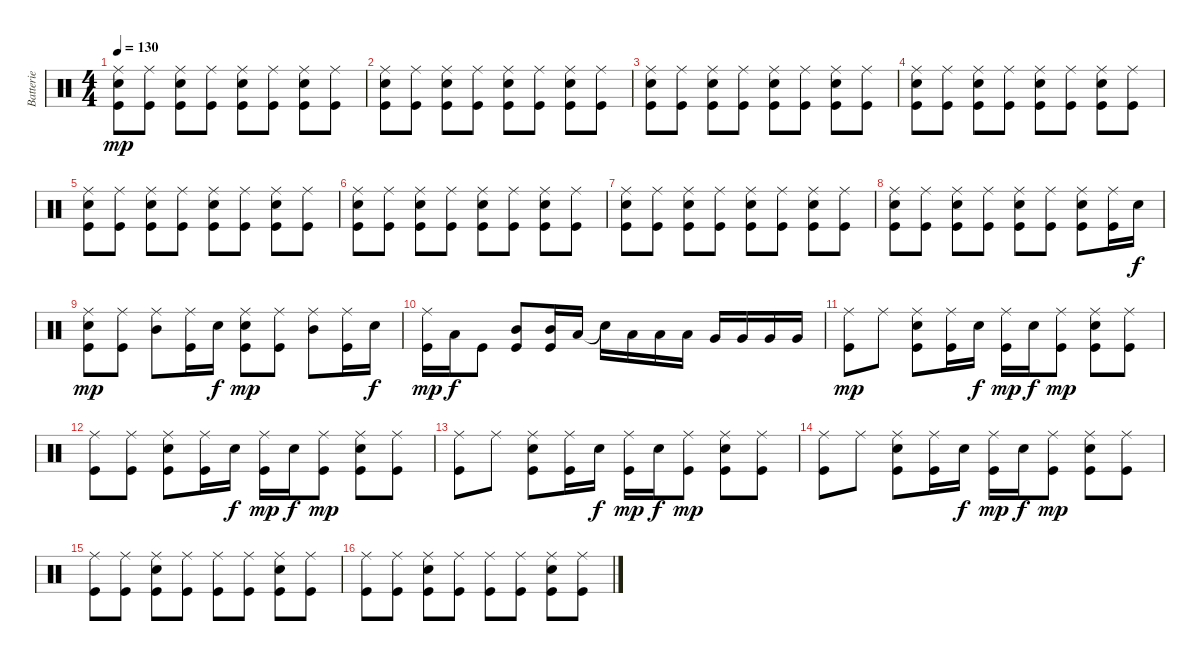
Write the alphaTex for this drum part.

\track ("Batterie" "Batterie") {instrument percussion}
\staff {score}
\articulation defaults
\ts (4 4)
\tempo 130
\clef neutral
\ks c
("Ride (middle)" "Snare (hit) 2" "Kick (hit)").8{dy mp} ("Ride (middle)" "Kick (hit)").8 ("Ride (middle)" "Snare (hit) 2" "Kick (hit)").8 ("Ride (middle)" "Kick (hit)").8 ("Ride (middle)" "Snare (hit) 2" "Kick (hit)").8 ("Ride (middle)" "Kick (hit)").8 ("Ride (middle)" "Snare (hit) 2" "Kick (hit)").8 ("Ride (middle)" "Kick (hit)").8 |
("Ride (middle)" "Snare (hit) 2" "Kick (hit)").8 ("Ride (middle)" "Kick (hit)").8 ("Ride (middle)" "Snare (hit) 2" "Kick (hit)").8 ("Ride (middle)" "Kick (hit)").8 ("Ride (middle)" "Snare (hit) 2" "Kick (hit)").8 ("Ride (middle)" "Kick (hit)").8 ("Ride (middle)" "Snare (hit) 2" "Kick (hit)").8 ("Ride (middle)" "Kick (hit)").8 |
("Ride (middle)" "Snare (hit) 2" "Kick (hit)").8 ("Ride (middle)" "Kick (hit)").8 ("Ride (middle)" "Snare (hit) 2" "Kick (hit)").8 ("Ride (middle)" "Kick (hit)").8 ("Ride (middle)" "Snare (hit) 2" "Kick (hit)").8 ("Ride (middle)" "Kick (hit)").8 ("Ride (middle)" "Snare (hit) 2" "Kick (hit)").8 ("Ride (middle)" "Kick (hit)").8 |
("Ride (middle)" "Snare (hit) 2" "Kick (hit)").8 ("Ride (middle)" "Kick (hit)").8 ("Ride (middle)" "Snare (hit) 2" "Kick (hit)").8 ("Ride (middle)" "Kick (hit)").8 ("Ride (middle)" "Snare (hit) 2" "Kick (hit)").8 ("Ride (middle)" "Kick (hit)").8 ("Ride (middle)" "Snare (hit) 2" "Kick (hit)").8 ("Ride (middle)" "Kick (hit)").8 |
("Ride (middle)" "Snare (hit) 2" "Kick (hit)").8 ("Ride (middle)" "Kick (hit)").8 ("Ride (middle)" "Snare (hit) 2" "Kick (hit)").8 ("Ride (middle)" "Kick (hit)").8 ("Ride (middle)" "Snare (hit) 2" "Kick (hit)").8 ("Ride (middle)" "Kick (hit)").8 ("Ride (middle)" "Snare (hit) 2" "Kick (hit)").8 ("Ride (middle)" "Kick (hit)").8 |
("Ride (middle)" "Snare (hit) 2" "Kick (hit)").8 ("Ride (middle)" "Kick (hit)").8 ("Ride (middle)" "Snare (hit) 2" "Kick (hit)").8 ("Ride (middle)" "Kick (hit)").8 ("Ride (middle)" "Snare (hit) 2" "Kick (hit)").8 ("Ride (middle)" "Kick (hit)").8 ("Ride (middle)" "Snare (hit) 2" "Kick (hit)").8 ("Ride (middle)" "Kick (hit)").8 |
("Ride (middle)" "Snare (hit) 2" "Kick (hit)").8 ("Ride (middle)" "Kick (hit)").8 ("Ride (middle)" "Snare (hit) 2" "Kick (hit)").8 ("Ride (middle)" "Kick (hit)").8 ("Ride (middle)" "Snare (hit) 2" "Kick (hit)").8 ("Ride (middle)" "Kick (hit)").8 ("Ride (middle)" "Snare (hit) 2" "Kick (hit)").8 ("Ride (middle)" "Kick (hit)").8 |
("Ride (middle)" "Snare (hit) 2" "Kick (hit)").8 ("Ride (middle)" "Kick (hit)").8 ("Ride (middle)" "Snare (hit) 2" "Kick (hit)").8 ("Ride (middle)" "Kick (hit)").8 ("Ride (middle)" "Snare (hit) 2" "Kick (hit)").8 ("Ride (middle)" "Kick (hit)").8 ("Ride (middle)" "Snare (hit) 2" "Kick (hit)").8 ("Ride (middle)" "Kick (hit)").16 "Snare (hit) 2".16{dy f} |
("Ride (middle)" "Snare (hit) 2" "Kick (hit)").8{dy mp} ("Ride (middle)" "Kick (hit)").8 ("Ride (middle)" "Mid Tom (hit)").8 ("Ride (middle)" "Kick (hit)").16 "Snare (hit) 2".16{dy f} ("Ride (middle)" "Snare (hit) 2" "Kick (hit)").8{dy mp} ("Ride (middle)" "Kick (hit)").8 ("Ride (middle)" "Mid Tom (hit)").8 ("Ride (middle)" "Kick (hit)").16 "Snare (hit) 2".16{dy f} |
("Ride (middle)" "Kick (hit)").16{dy mp} "Low Tom (hit)".16{dy f} "Kick (hit)".8 ("Mid Tom (hit)" "Kick (hit)").8 ("Mid Tom (hit)" "Kick (hit)").16 "Low Tom (hit)".16 "Snare (hit)"{t}.16 "Low Tom (hit)".16 "Low Tom (hit)".16 "Low Tom (hit)".16 "Very Low Tom (hit)".16 "Very Low Tom (hit)".16 "Very Low Tom (hit)".16 "Very Low Tom (hit)".16 |
("Ride (middle)" "Kick (hit)").8{dy mp} "Ride (middle)".8 ("Ride (middle)" "Snare (hit) 2" "Kick (hit)").8 ("Ride (middle)" "Kick (hit)").16 "Snare (hit) 2".16{dy f} ("Ride (middle)" "Kick (hit)").16{dy mp} "Snare (hit) 2".16{dy f} ("Ride (middle)" "Kick (hit)").8{dy mp} ("Ride (middle)" "Snare (hit) 2" "Kick (hit)").8 ("Ride (middle)" "Kick (hit)").8 |
("Ride (middle)" "Kick (hit)").8 ("Ride (middle)" "Kick (hit)").8 ("Ride (middle)" "Snare (hit) 2" "Kick (hit)").8 ("Ride (middle)" "Kick (hit)").16 "Snare (hit) 2".16{dy f} ("Ride (middle)" "Kick (hit)").16{dy mp} "Snare (hit) 2".16{dy f} ("Ride (middle)" "Kick (hit)").8{dy mp} ("Ride (middle)" "Snare (hit) 2" "Kick (hit)").8 ("Ride (middle)" "Kick (hit)").8 |
("Ride (middle)" "Kick (hit)").8 "Ride (middle)".8 ("Ride (middle)" "Snare (hit) 2" "Kick (hit)").8 ("Ride (middle)" "Kick (hit)").16 "Snare (hit) 2".16{dy f} ("Ride (middle)" "Kick (hit)").16{dy mp} "Snare (hit) 2".16{dy f} ("Ride (middle)" "Kick (hit)").8{dy mp} ("Ride (middle)" "Snare (hit) 2" "Kick (hit)").8 ("Ride (middle)" "Kick (hit)").8 |
("Ride (middle)" "Kick (hit)").8 "Ride (middle)".8 ("Ride (middle)" "Snare (hit) 2" "Kick (hit)").8 ("Ride (middle)" "Kick (hit)").16 "Snare (hit) 2".16{dy f} ("Ride (middle)" "Kick (hit)").16{dy mp} "Snare (hit) 2".16{dy f} ("Ride (middle)" "Kick (hit)").8{dy mp} ("Ride (middle)" "Snare (hit) 2" "Kick (hit)").8 ("Ride (middle)" "Kick (hit)").8 |
("Ride (middle)" "Kick (hit)").8 ("Ride (middle)" "Kick (hit)").8 ("Ride (middle)" "Snare (hit) 2" "Kick (hit)").8 ("Ride (middle)" "Kick (hit)").8 ("Ride (middle)" "Kick (hit)").8 ("Ride (middle)" "Kick (hit)").8 ("Ride (middle)" "Snare (hit) 2" "Kick (hit)").8 ("Ride (middle)" "Kick (hit)").8 |
("Ride (middle)" "Kick (hit)").8 ("Ride (middle)" "Kick (hit)").8 ("Ride (middle)" "Snare (hit) 2" "Kick (hit)").8 ("Ride (middle)" "Kick (hit)").8 ("Ride (middle)" "Kick (hit)").8 ("Ride (middle)" "Kick (hit)").8 ("Ride (middle)" "Snare (hit) 2" "Kick (hit)").8 ("Ride (middle)" "Kick (hit)").8
